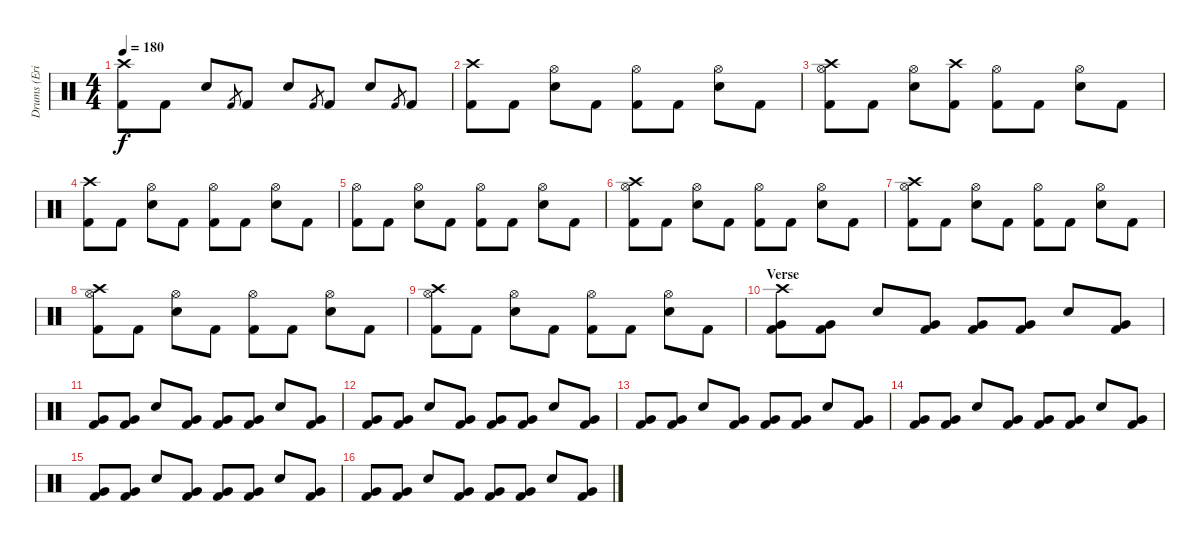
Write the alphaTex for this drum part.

\track ("Drums (Eric Young)" "Drums (Eri") {instrument percussion}
\staff {score}
\articulation defaults
\ts (4 4)
\tempo 180
\clef neutral
\ks c
("Crash high (hit)" "Kick (hit) 2").8{dy f} "Kick (hit) 2".8 "Snare (hit) 2".8 "Kick (hit) 2".8{gr} "Kick (hit) 2".8 "Snare (hit) 2".8 "Kick (hit) 2".8{gr} "Kick (hit) 2".8 "Snare (hit) 2".8 "Kick (hit) 2".8{gr} "Kick (hit) 2".8 |
("Crash high (hit)" "Kick (hit) 2").8 "Kick (hit) 2".8 ("Hi-Hat (open)" "Snare (hit) 2").8 "Kick (hit) 2".8 ("Hi-Hat (open)" "Kick (hit) 2").8 "Kick (hit) 2".8 ("Hi-Hat (open)" "Snare (hit) 2").8 "Kick (hit) 2".8 |
("Crash high (hit)" "Hi-Hat (open)" "Kick (hit) 2").8 "Kick (hit) 2".8 ("Hi-Hat (open)" "Snare (hit) 2").8 ("Crash high (hit)" "Kick (hit) 2").8 ("Hi-Hat (open)" "Kick (hit) 2").8 "Kick (hit) 2".8 ("Hi-Hat (open)" "Snare (hit) 2").8 "Kick (hit) 2".8 |
("Crash high (hit)" "Kick (hit) 2").8 "Kick (hit) 2".8 ("Hi-Hat (open)" "Snare (hit) 2").8 "Kick (hit) 2".8 ("Hi-Hat (open)" "Kick (hit) 2").8 "Kick (hit) 2".8 ("Hi-Hat (open)" "Snare (hit) 2").8 "Kick (hit) 2".8 |
("Hi-Hat (open)" "Kick (hit) 2").8 "Kick (hit) 2".8 ("Hi-Hat (open)" "Snare (hit) 2").8 "Kick (hit) 2".8 ("Hi-Hat (open)" "Kick (hit) 2").8 "Kick (hit) 2".8 ("Hi-Hat (open)" "Snare (hit) 2").8 "Kick (hit) 2".8 |
("Crash high (hit)" "Hi-Hat (open)" "Kick (hit) 2").8 "Kick (hit) 2".8 ("Hi-Hat (open)" "Snare (hit) 2").8 "Kick (hit) 2".8 ("Hi-Hat (open)" "Kick (hit) 2").8 "Kick (hit) 2".8 ("Hi-Hat (open)" "Snare (hit) 2").8 "Kick (hit) 2".8 |
("Crash high (hit)" "Hi-Hat (open)" "Kick (hit) 2").8 "Kick (hit) 2".8 ("Hi-Hat (open)" "Snare (hit) 2").8 "Kick (hit) 2".8 ("Hi-Hat (open)" "Kick (hit) 2").8 "Kick (hit) 2".8 ("Hi-Hat (open)" "Snare (hit) 2").8 "Kick (hit) 2".8 |
("Crash high (hit)" "Hi-Hat (open)" "Kick (hit) 2").8 "Kick (hit) 2".8 ("Hi-Hat (open)" "Snare (hit) 2").8 "Kick (hit) 2".8 ("Hi-Hat (open)" "Kick (hit) 2").8 "Kick (hit) 2".8 ("Hi-Hat (open)" "Snare (hit) 2").8 "Kick (hit) 2".8 |
("Crash high (hit)" "Hi-Hat (open)" "Kick (hit) 2").8 "Kick (hit) 2".8 ("Hi-Hat (open)" "Snare (hit) 2").8 "Kick (hit) 2".8 ("Hi-Hat (open)" "Kick (hit) 2").8 "Kick (hit) 2".8 ("Hi-Hat (open)" "Snare (hit) 2").8 "Kick (hit) 2".8 |
\section ("" "Verse")
("Crash high (hit)" "Very Low Tom (hit)" "Kick (hit) 2").8 ("Very Low Tom (hit)" "Kick (hit) 2").8 "Snare (hit) 2".8 ("Very Low Tom (hit)" "Kick (hit) 2").8 ("Very Low Tom (hit)" "Kick (hit) 2").8 ("Very Low Tom (hit)" "Kick (hit) 2").8 "Snare (hit) 2".8 ("Very Low Tom (hit)" "Kick (hit) 2").8 |
("Very Low Tom (hit)" "Kick (hit) 2").8 ("Very Low Tom (hit)" "Kick (hit) 2").8 "Snare (hit) 2".8 ("Very Low Tom (hit)" "Kick (hit) 2").8 ("Very Low Tom (hit)" "Kick (hit) 2").8 ("Very Low Tom (hit)" "Kick (hit) 2").8 "Snare (hit) 2".8 ("Very Low Tom (hit)" "Kick (hit) 2").8 |
("Very Low Tom (hit)" "Kick (hit) 2").8 ("Very Low Tom (hit)" "Kick (hit) 2").8 "Snare (hit) 2".8 ("Very Low Tom (hit)" "Kick (hit) 2").8 ("Very Low Tom (hit)" "Kick (hit) 2").8 ("Very Low Tom (hit)" "Kick (hit) 2").8 "Snare (hit) 2".8 ("Very Low Tom (hit)" "Kick (hit) 2").8 |
("Very Low Tom (hit)" "Kick (hit) 2").8 ("Very Low Tom (hit)" "Kick (hit) 2").8 "Snare (hit) 2".8 ("Very Low Tom (hit)" "Kick (hit) 2").8 ("Very Low Tom (hit)" "Kick (hit) 2").8 ("Very Low Tom (hit)" "Kick (hit) 2").8 "Snare (hit) 2".8 ("Very Low Tom (hit)" "Kick (hit) 2").8 |
("Very Low Tom (hit)" "Kick (hit) 2").8 ("Very Low Tom (hit)" "Kick (hit) 2").8 "Snare (hit) 2".8 ("Very Low Tom (hit)" "Kick (hit) 2").8 ("Very Low Tom (hit)" "Kick (hit) 2").8 ("Very Low Tom (hit)" "Kick (hit) 2").8 "Snare (hit) 2".8 ("Very Low Tom (hit)" "Kick (hit) 2").8 |
("Very Low Tom (hit)" "Kick (hit) 2").8 ("Very Low Tom (hit)" "Kick (hit) 2").8 "Snare (hit) 2".8 ("Very Low Tom (hit)" "Kick (hit) 2").8 ("Very Low Tom (hit)" "Kick (hit) 2").8 ("Very Low Tom (hit)" "Kick (hit) 2").8 "Snare (hit) 2".8 ("Very Low Tom (hit)" "Kick (hit) 2").8 |
("Very Low Tom (hit)" "Kick (hit) 2").8 ("Very Low Tom (hit)" "Kick (hit) 2").8 "Snare (hit) 2".8 ("Very Low Tom (hit)" "Kick (hit) 2").8 ("Very Low Tom (hit)" "Kick (hit) 2").8 ("Very Low Tom (hit)" "Kick (hit) 2").8 "Snare (hit) 2".8 ("Very Low Tom (hit)" "Kick (hit) 2").8
